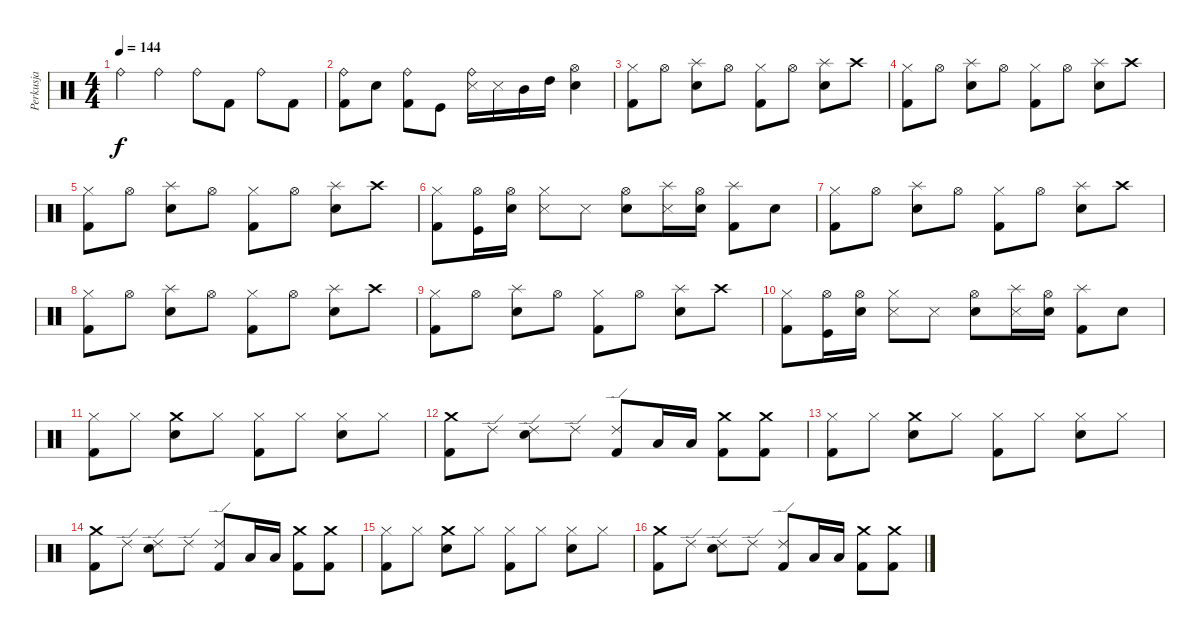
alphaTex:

\track ("Perkusja" "Perkusja") {instrument percussion}
\staff {score}
\articulation defaults
\ts (4 4)
\tempo 144
\clef neutral
\ks c "Ride (bell)".4{dy f} "Ride (bell)".4 "Ride (bell)".8 "Kick (hit) 2".8 "Ride (bell)".8 "Kick (hit) 2".8
|
("Ride (bell)" "Kick (hit) 2").8 "Snare (hit) 2".8 ("Ride (bell)" "Kick (hit) 2").8 "Kick (hit)".8 ("Ride (bell)" "Snare (side stick) 3").16 "Snare (side stick) 3".16 "Mid Tom (hit)".16 "High Tom (hit)".16 ("Hi-Hat (open)" "Snare (hit) 2").4 |
("Kick (hit) 2" "Hi-Hat (closed)").8 "Hi-Hat (open)".8 ("Snare (hit) 2" "Splash (hit)").8 "Hi-Hat (open)".8 ("Kick (hit) 2" "Hi-Hat (closed)").8 "Hi-Hat (open)".8 ("Snare (hit) 2" "Splash (hit)").8 "Crash high (hit)".8 |
("Kick (hit) 2" "Hi-Hat (closed)").8 "Hi-Hat (open)".8 ("Snare (hit) 2" "Splash (hit)").8 "Hi-Hat (open)".8 ("Kick (hit) 2" "Hi-Hat (closed)").8 "Hi-Hat (open)".8 ("Snare (hit) 2" "Splash (hit)").8 "Crash high (hit)".8 |
("Kick (hit) 2" "Hi-Hat (closed)").8 "Hi-Hat (open)".8 ("Snare (hit) 2" "Splash (hit)").8 "Hi-Hat (open)".8 ("Kick (hit) 2" "Hi-Hat (closed)").8 "Hi-Hat (open)".8 ("Snare (hit) 2" "Splash (hit)").8 "Crash high (hit)".8 |
("Kick (hit) 2" "Hi-Hat (closed)").8 ("Hi-Hat (open)" "Kick (hit)").16 ("Snare (hit) 2" "Hi-Hat (open)").16 ("Snare (side stick) 3" "Hi-Hat (closed)").8 "Snare (side stick) 3".8 ("Snare (hit) 2" "Hi-Hat (open)").8 ("Snare (side stick) 3" "Splash (hit)").16 ("Snare (hit) 2" "Hi-Hat (open)").16 ("Kick (hit) 2" "Splash (hit)").8 "Snare (hit) 2".8 |
("Kick (hit) 2" "Hi-Hat (closed)").8 "Hi-Hat (open)".8 ("Snare (hit) 2" "Splash (hit)").8 "Hi-Hat (open)".8 ("Kick (hit) 2" "Hi-Hat (closed)").8 "Hi-Hat (open)".8 ("Snare (hit) 2" "Splash (hit)").8 "Crash high (hit)".8 |
("Kick (hit) 2" "Hi-Hat (closed)").8 "Hi-Hat (open)".8 ("Snare (hit) 2" "Splash (hit)").8 "Hi-Hat (open)".8 ("Kick (hit) 2" "Hi-Hat (closed)").8 "Hi-Hat (open)".8 ("Snare (hit) 2" "Splash (hit)").8 "Crash high (hit)".8 |
("Kick (hit) 2" "Hi-Hat (closed)").8 "Hi-Hat (open)".8 ("Snare (hit) 2" "Splash (hit)").8 "Hi-Hat (open)".8 ("Kick (hit) 2" "Hi-Hat (closed)").8 "Hi-Hat (open)".8 ("Snare (hit) 2" "Splash (hit)").8 "Crash high (hit)".8 |
("Kick (hit) 2" "Hi-Hat (closed)").8 ("Hi-Hat (open)" "Kick (hit)").16 ("Snare (hit) 2" "Hi-Hat (open)").16 ("Snare (side stick) 3" "Hi-Hat (closed)").8 "Snare (side stick) 3".8 ("Snare (hit) 2" "Hi-Hat (open)").8 ("Snare (side stick) 3" "Splash (hit)").16 ("Snare (hit) 2" "Hi-Hat (open)").16 ("Kick (hit) 2" "Splash (hit)").8 "Snare (hit) 2".8 |
("Hi-Hat (closed)" "Kick (hit) 2").8 "Hi-Hat (closed)".8 ("Crash medium (hit)" "Snare (hit) 2").8 "Hi-Hat (closed)".8 ("Hi-Hat (closed)" "Kick (hit) 2").8 "Hi-Hat (closed)".8 ("Snare (hit) 2" "Hi-Hat (closed)").8 "Hi-Hat (closed)".8 |
("Crash medium (hit)" "Kick (hit) 2").8 "Ride (edge) 2".8 ("Snare (hit) 2" "Ride (edge) 2").8 "Ride (edge) 2".8 ("Ride (edge) 2" "Kick (hit) 2").8 "Low Tom (hit)".16 "Low Tom (hit)".16 ("Crash medium (hit)" "Kick (hit) 2").8 ("Crash medium (hit)" "Kick (hit) 2").8 |
("Hi-Hat (closed)" "Kick (hit) 2").8 "Hi-Hat (closed)".8 ("Crash medium (hit)" "Snare (hit) 2").8 "Hi-Hat (closed)".8 ("Hi-Hat (closed)" "Kick (hit) 2").8 "Hi-Hat (closed)".8 ("Snare (hit) 2" "Hi-Hat (closed)").8 "Hi-Hat (closed)".8 |
("Crash medium (hit)" "Kick (hit) 2").8 "Ride (edge) 2".8 ("Snare (hit) 2" "Ride (edge) 2").8 "Ride (edge) 2".8 ("Ride (edge) 2" "Kick (hit) 2").8 "Low Tom (hit)".16 "Low Tom (hit)".16 ("Crash medium (hit)" "Kick (hit) 2").8 ("Crash medium (hit)" "Kick (hit) 2").8 |
("Hi-Hat (closed)" "Kick (hit) 2").8 "Hi-Hat (closed)".8 ("Crash medium (hit)" "Snare (hit) 2").8 "Hi-Hat (closed)".8 ("Hi-Hat (closed)" "Kick (hit) 2").8 "Hi-Hat (closed)".8 ("Snare (hit) 2" "Hi-Hat (closed)").8 "Hi-Hat (closed)".8 |
("Crash medium (hit)" "Kick (hit) 2").8 "Ride (edge) 2".8 ("Snare (hit) 2" "Ride (edge) 2").8 "Ride (edge) 2".8 ("Ride (edge) 2" "Kick (hit) 2").8 "Low Tom (hit)".16 "Low Tom (hit)".16 ("Crash medium (hit)" "Kick (hit) 2").8 ("Crash medium (hit)" "Kick (hit) 2").8
